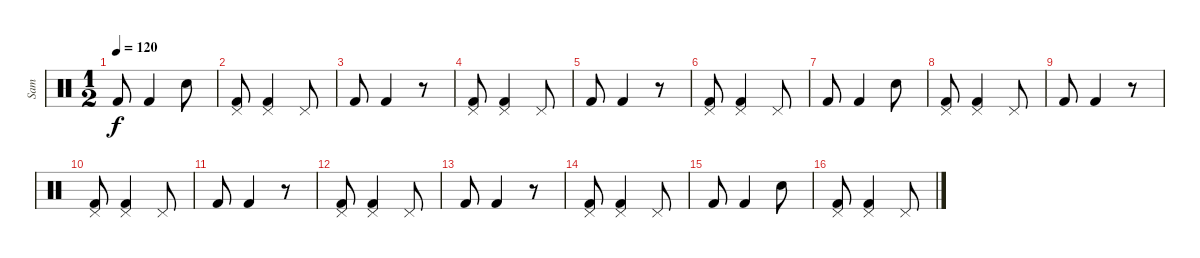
\track ("Sam" "Sam") {instrument percussion}
\staff {score}
\articulation defaults
\ts (1 2)
\tempo 120
\clef neutral
\ks c "Kick (hit) 2".8{dy f} "Kick (hit) 2".4 "Electric Snare (hit)".8
|
("Pedal Hi-Hat (hit)" "Kick (hit) 2").8 ("Pedal Hi-Hat (hit)" "Kick (hit) 2").4 "Pedal Hi-Hat (hit)".8 |
"Kick (hit) 2".8 "Kick (hit) 2".4 r.8 |
("Pedal Hi-Hat (hit)" "Kick (hit) 2").8 ("Pedal Hi-Hat (hit)" "Kick (hit) 2").4 "Pedal Hi-Hat (hit)".8 |
"Kick (hit) 2".8 "Kick (hit) 2".4 r.8 |
("Pedal Hi-Hat (hit)" "Kick (hit) 2").8 ("Pedal Hi-Hat (hit)" "Kick (hit) 2").4 "Pedal Hi-Hat (hit)".8 |
"Kick (hit) 2".8 "Kick (hit) 2".4 "Electric Snare (hit)".8 |
("Pedal Hi-Hat (hit)" "Kick (hit) 2").8 ("Pedal Hi-Hat (hit)" "Kick (hit) 2").4 "Pedal Hi-Hat (hit)".8 |
"Kick (hit) 2".8 "Kick (hit) 2".4 r.8 |
("Pedal Hi-Hat (hit)" "Kick (hit) 2").8 ("Pedal Hi-Hat (hit)" "Kick (hit) 2").4 "Pedal Hi-Hat (hit)".8 |
"Kick (hit) 2".8 "Kick (hit) 2".4 r.8 |
("Pedal Hi-Hat (hit)" "Kick (hit) 2").8 ("Pedal Hi-Hat (hit)" "Kick (hit) 2").4 "Pedal Hi-Hat (hit)".8 |
"Kick (hit) 2".8 "Kick (hit) 2".4 r.8 |
("Pedal Hi-Hat (hit)" "Kick (hit) 2").8 ("Pedal Hi-Hat (hit)" "Kick (hit) 2").4 "Pedal Hi-Hat (hit)".8 |
"Kick (hit) 2".8 "Kick (hit) 2".4 "Electric Snare (hit)".8 |
("Pedal Hi-Hat (hit)" "Kick (hit) 2").8 ("Pedal Hi-Hat (hit)" "Kick (hit) 2").4 "Pedal Hi-Hat (hit)".8
